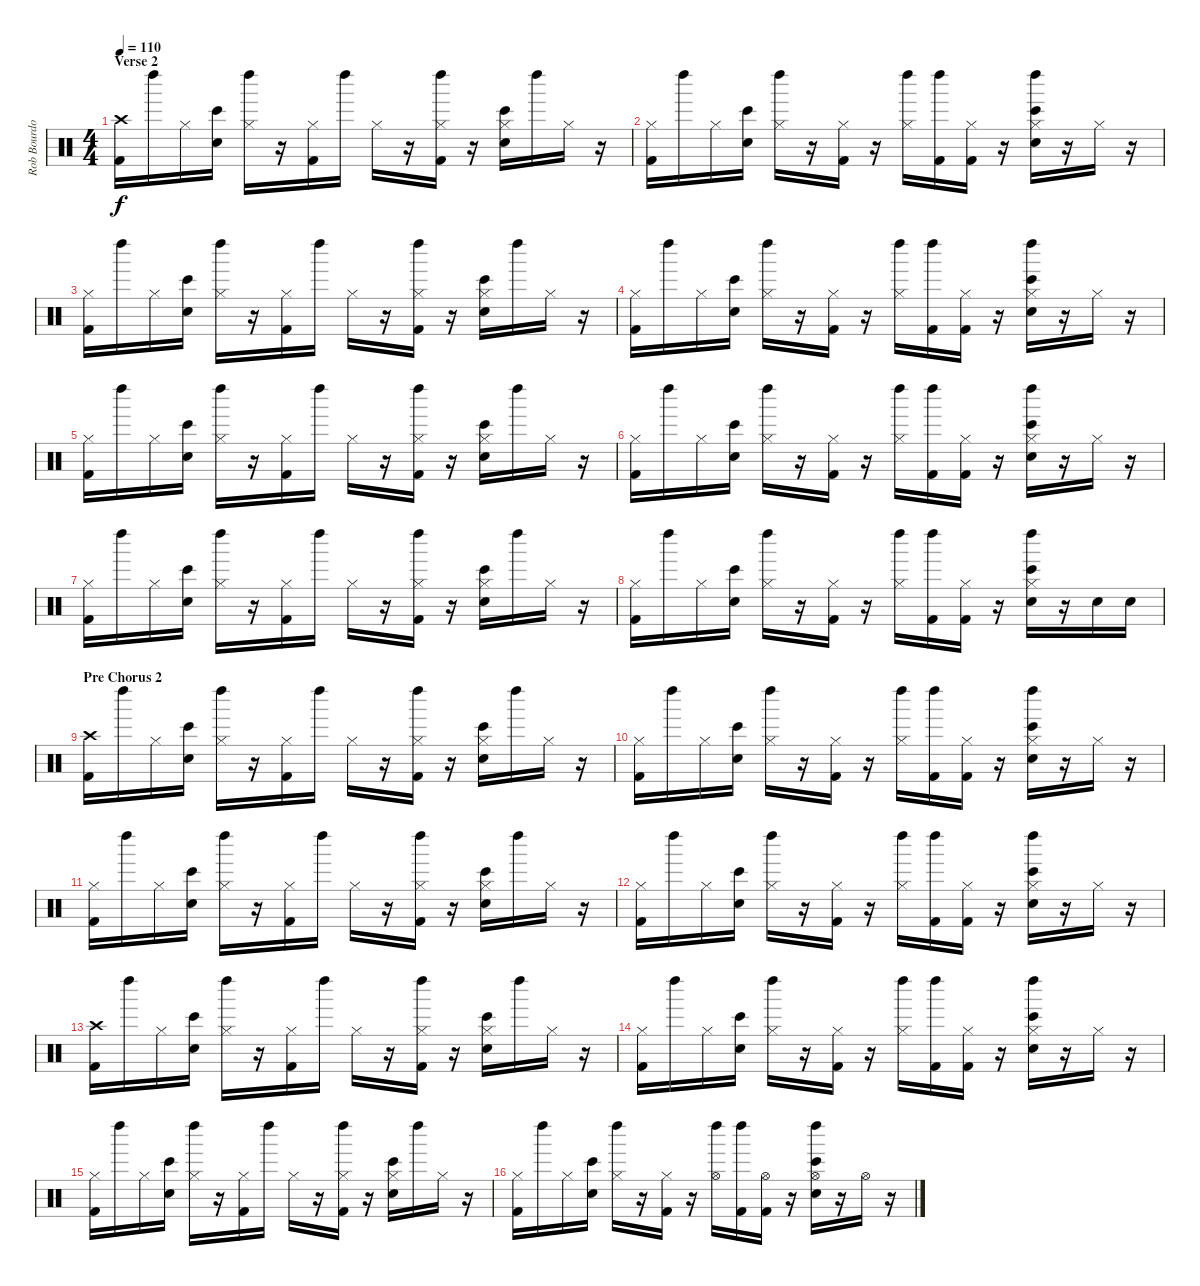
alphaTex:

\track ("Rob Bourdon (Drums)" "Rob Bourdo") {instrument percussion}
\staff {score}
\articulation defaults
\ts (4 4)
\section ("" "Verse 2")
\tempo 110
\clef neutral
\ks c
("Crash high (hit)" "Kick (hit) 2").16{dy f} "Left Maraca (hit)".16 "Hi-Hat (closed)".16 ("Electric Snare (hit)" "Bongo High (hit)").16 ("Hi-Hat (closed)" "Left Maraca (hit)").16 r.16 ("Hi-Hat (closed)" "Kick (hit) 2").16 "Left Maraca (hit)".16 "Hi-Hat (closed)".16 r.16 ("Hi-Hat (closed)" "Left Maraca (hit)" "Kick (hit) 2").16 r.16 ("Hi-Hat (closed)" "Electric Snare (hit)" "Bongo High (hit)").16 "Left Maraca (hit)".16 "Hi-Hat (closed)".16 r.16 |
("Hi-Hat (closed)" "Kick (hit) 2").16 "Left Maraca (hit)".16 "Hi-Hat (closed)".16 ("Electric Snare (hit)" "Bongo High (hit)").16 ("Hi-Hat (closed)" "Left Maraca (hit)").16 r.16 ("Hi-Hat (closed)" "Kick (hit) 2").16 r.16 ("Hi-Hat (closed)" "Left Maraca (hit)").16 ("Left Maraca (hit)" "Kick (hit) 2").16 ("Hi-Hat (closed)" "Kick (hit) 2").16 r.16 ("Hi-Hat (closed)" "Left Maraca (hit)" "Electric Snare (hit)" "Bongo High (hit)").16 r.16 "Hi-Hat (closed)".16 r.16 |
("Hi-Hat (closed)" "Kick (hit) 2").16 "Left Maraca (hit)".16 "Hi-Hat (closed)".16 ("Electric Snare (hit)" "Bongo High (hit)").16 ("Hi-Hat (closed)" "Left Maraca (hit)").16 r.16 ("Hi-Hat (closed)" "Kick (hit) 2").16 "Left Maraca (hit)".16 "Hi-Hat (closed)".16 r.16 ("Hi-Hat (closed)" "Left Maraca (hit)" "Kick (hit) 2").16 r.16 ("Hi-Hat (closed)" "Electric Snare (hit)" "Bongo High (hit)").16 "Left Maraca (hit)".16 "Hi-Hat (closed)".16 r.16 |
("Hi-Hat (closed)" "Kick (hit) 2").16 "Left Maraca (hit)".16 "Hi-Hat (closed)".16 ("Electric Snare (hit)" "Bongo High (hit)").16 ("Hi-Hat (closed)" "Left Maraca (hit)").16 r.16 ("Hi-Hat (closed)" "Kick (hit) 2").16 r.16 ("Hi-Hat (closed)" "Left Maraca (hit)").16 ("Left Maraca (hit)" "Kick (hit) 2").16 ("Hi-Hat (closed)" "Kick (hit) 2").16 r.16 ("Hi-Hat (closed)" "Left Maraca (hit)" "Electric Snare (hit)" "Bongo High (hit)").16 r.16 "Hi-Hat (closed)".16 r.16 |
("Hi-Hat (closed)" "Kick (hit) 2").16 "Left Maraca (hit)".16 "Hi-Hat (closed)".16 ("Electric Snare (hit)" "Bongo High (hit)").16 ("Hi-Hat (closed)" "Left Maraca (hit)").16 r.16 ("Hi-Hat (closed)" "Kick (hit) 2").16 "Left Maraca (hit)".16 "Hi-Hat (closed)".16 r.16 ("Hi-Hat (closed)" "Left Maraca (hit)" "Kick (hit) 2").16 r.16 ("Hi-Hat (closed)" "Electric Snare (hit)" "Bongo High (hit)").16 "Left Maraca (hit)".16 "Hi-Hat (closed)".16 r.16 |
("Hi-Hat (closed)" "Kick (hit) 2").16 "Left Maraca (hit)".16 "Hi-Hat (closed)".16 ("Electric Snare (hit)" "Bongo High (hit)").16 ("Hi-Hat (closed)" "Left Maraca (hit)").16 r.16 ("Hi-Hat (closed)" "Kick (hit) 2").16 r.16 ("Hi-Hat (closed)" "Left Maraca (hit)").16 ("Left Maraca (hit)" "Kick (hit) 2").16 ("Hi-Hat (closed)" "Kick (hit) 2").16 r.16 ("Hi-Hat (closed)" "Left Maraca (hit)" "Electric Snare (hit)" "Bongo High (hit)").16 r.16 "Hi-Hat (closed)".16 r.16 |
("Hi-Hat (closed)" "Kick (hit) 2").16 "Left Maraca (hit)".16 "Hi-Hat (closed)".16 ("Electric Snare (hit)" "Bongo High (hit)").16 ("Hi-Hat (closed)" "Left Maraca (hit)").16 r.16 ("Hi-Hat (closed)" "Kick (hit) 2").16 "Left Maraca (hit)".16 "Hi-Hat (closed)".16 r.16 ("Hi-Hat (closed)" "Left Maraca (hit)" "Kick (hit) 2").16 r.16 ("Hi-Hat (closed)" "Electric Snare (hit)" "Bongo High (hit)").16 "Left Maraca (hit)".16 "Hi-Hat (closed)".16 r.16 |
("Hi-Hat (closed)" "Kick (hit) 2").16 "Left Maraca (hit)".16 "Hi-Hat (closed)".16 ("Electric Snare (hit)" "Bongo High (hit)").16 ("Hi-Hat (closed)" "Left Maraca (hit)").16 r.16 ("Hi-Hat (closed)" "Kick (hit) 2").16 r.16 ("Hi-Hat (closed)" "Left Maraca (hit)").16 ("Left Maraca (hit)" "Kick (hit) 2").16 ("Hi-Hat (closed)" "Kick (hit) 2").16 r.16 ("Hi-Hat (closed)" "Left Maraca (hit)" "Electric Snare (hit)" "Bongo High (hit)").16 r.16 "Electric Snare (hit)".16 "Electric Snare (hit)".16 |
\section ("" "Pre Chorus 2")
("Crash high (hit)" "Kick (hit) 2").16 "Left Maraca (hit)".16 "Hi-Hat (closed)".16 ("Electric Snare (hit)" "Bongo High (hit)").16 ("Hi-Hat (closed)" "Left Maraca (hit)").16 r.16 ("Hi-Hat (closed)" "Kick (hit) 2").16 "Left Maraca (hit)".16 "Hi-Hat (closed)".16 r.16 ("Hi-Hat (closed)" "Left Maraca (hit)" "Kick (hit) 2").16 r.16 ("Hi-Hat (closed)" "Electric Snare (hit)" "Bongo High (hit)").16 "Left Maraca (hit)".16 "Hi-Hat (closed)".16 r.16 |
("Hi-Hat (closed)" "Kick (hit) 2").16 "Left Maraca (hit)".16 "Hi-Hat (closed)".16 ("Electric Snare (hit)" "Bongo High (hit)").16 ("Hi-Hat (closed)" "Left Maraca (hit)").16 r.16 ("Hi-Hat (closed)" "Kick (hit) 2").16 r.16 ("Hi-Hat (closed)" "Left Maraca (hit)").16 ("Left Maraca (hit)" "Kick (hit) 2").16 ("Hi-Hat (closed)" "Kick (hit) 2").16 r.16 ("Hi-Hat (closed)" "Left Maraca (hit)" "Electric Snare (hit)" "Bongo High (hit)").16 r.16 "Hi-Hat (closed)".16 r.16 |
("Hi-Hat (closed)" "Kick (hit) 2").16 "Left Maraca (hit)".16 "Hi-Hat (closed)".16 ("Electric Snare (hit)" "Bongo High (hit)").16 ("Hi-Hat (closed)" "Left Maraca (hit)").16 r.16 ("Hi-Hat (closed)" "Kick (hit) 2").16 "Left Maraca (hit)".16 "Hi-Hat (closed)".16 r.16 ("Hi-Hat (closed)" "Left Maraca (hit)" "Kick (hit) 2").16 r.16 ("Hi-Hat (closed)" "Electric Snare (hit)" "Bongo High (hit)").16 "Left Maraca (hit)".16 "Hi-Hat (closed)".16 r.16 |
("Hi-Hat (closed)" "Kick (hit) 2").16 "Left Maraca (hit)".16 "Hi-Hat (closed)".16 ("Electric Snare (hit)" "Bongo High (hit)").16 ("Hi-Hat (closed)" "Left Maraca (hit)").16 r.16 ("Hi-Hat (closed)" "Kick (hit) 2").16 r.16 ("Hi-Hat (closed)" "Left Maraca (hit)").16 ("Left Maraca (hit)" "Kick (hit) 2").16 ("Hi-Hat (closed)" "Kick (hit) 2").16 r.16 ("Hi-Hat (closed)" "Left Maraca (hit)" "Electric Snare (hit)" "Bongo High (hit)").16 r.16 "Hi-Hat (closed)".16 r.16 |
("Crash high (hit)" "Kick (hit) 2").16 "Left Maraca (hit)".16 "Hi-Hat (closed)".16 ("Electric Snare (hit)" "Bongo High (hit)").16 ("Hi-Hat (closed)" "Left Maraca (hit)").16 r.16 ("Hi-Hat (closed)" "Kick (hit) 2").16 "Left Maraca (hit)".16 "Hi-Hat (closed)".16 r.16 ("Hi-Hat (closed)" "Left Maraca (hit)" "Kick (hit) 2").16 r.16 ("Hi-Hat (closed)" "Electric Snare (hit)" "Bongo High (hit)").16 "Left Maraca (hit)".16 "Hi-Hat (closed)".16 r.16 |
("Hi-Hat (closed)" "Kick (hit) 2").16 "Left Maraca (hit)".16 "Hi-Hat (closed)".16 ("Electric Snare (hit)" "Bongo High (hit)").16 ("Hi-Hat (closed)" "Left Maraca (hit)").16 r.16 ("Hi-Hat (closed)" "Kick (hit) 2").16 r.16 ("Hi-Hat (closed)" "Left Maraca (hit)").16 ("Left Maraca (hit)" "Kick (hit) 2").16 ("Hi-Hat (closed)" "Kick (hit) 2").16 r.16 ("Hi-Hat (closed)" "Left Maraca (hit)" "Electric Snare (hit)" "Bongo High (hit)").16 r.16 "Hi-Hat (closed)".16 r.16 |
("Hi-Hat (closed)" "Kick (hit) 2").16 "Left Maraca (hit)".16 "Hi-Hat (closed)".16 ("Electric Snare (hit)" "Bongo High (hit)").16 ("Hi-Hat (closed)" "Left Maraca (hit)").16 r.16 ("Hi-Hat (closed)" "Kick (hit) 2").16 "Left Maraca (hit)".16 "Hi-Hat (closed)".16 r.16 ("Hi-Hat (closed)" "Left Maraca (hit)" "Kick (hit) 2").16 r.16 ("Hi-Hat (closed)" "Electric Snare (hit)" "Bongo High (hit)").16 "Left Maraca (hit)".16 "Hi-Hat (closed)".16 r.16 |
("Hi-Hat (closed)" "Kick (hit) 2").16 "Left Maraca (hit)".16 "Hi-Hat (closed)".16 ("Electric Snare (hit)" "Bongo High (hit)").16 ("Hi-Hat (closed)" "Left Maraca (hit)").16 r.16 ("Hi-Hat (closed)" "Kick (hit) 2").16 r.16 ("Hi-Hat (open)" "Left Maraca (hit)").16 ("Left Maraca (hit)" "Kick (hit) 2").16 ("Hi-Hat (open)" "Kick (hit) 2").16 r.16 ("Hi-Hat (open)" "Left Maraca (hit)" "Electric Snare (hit)" "Bongo High (hit)").16 r.16 "Hi-Hat (open)".16 r.16
